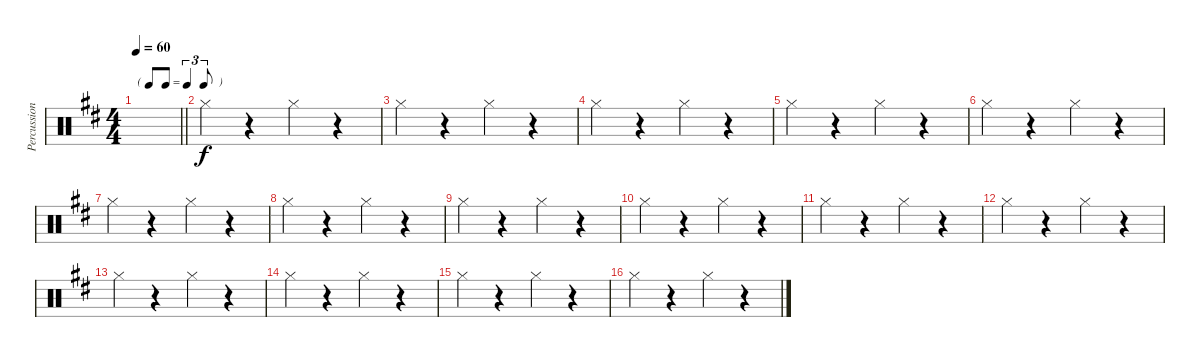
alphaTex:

\track ("Percussion" "Percussion") {instrument percussion}
\staff {score}
\articulation defaults
\ts (4 4)
\tf triplet8th
\tempo 60
\clef neutral
\barLineRight lightlight
\ks d
|
"Hi-Hat (closed)".4 r.4 "Hi-Hat (closed)".4 r.4 |
"Hi-Hat (closed)".4 r.4 "Hi-Hat (closed)".4 r.4 |
"Hi-Hat (closed)".4 r.4 "Hi-Hat (closed)".4 r.4 |
"Hi-Hat (closed)".4 r.4 "Hi-Hat (closed)".4 r.4 |
"Hi-Hat (closed)".4 r.4 "Hi-Hat (closed)".4 r.4 |
"Hi-Hat (closed)".4 r.4 "Hi-Hat (closed)".4 r.4 |
"Hi-Hat (closed)".4 r.4 "Hi-Hat (closed)".4 r.4 |
"Hi-Hat (closed)".4 r.4 "Hi-Hat (closed)".4 r.4 |
"Hi-Hat (closed)".4 r.4 "Hi-Hat (closed)".4 r.4 |
"Hi-Hat (closed)".4 r.4 "Hi-Hat (closed)".4 r.4 |
"Hi-Hat (closed)".4 r.4 "Hi-Hat (closed)".4 r.4 |
"Hi-Hat (closed)".4 r.4 "Hi-Hat (closed)".4 r.4 |
"Hi-Hat (closed)".4 r.4 "Hi-Hat (closed)".4 r.4 |
"Hi-Hat (closed)".4 r.4 "Hi-Hat (closed)".4 r.4 |
"Hi-Hat (closed)".4 r.4 "Hi-Hat (closed)".4 r.4
